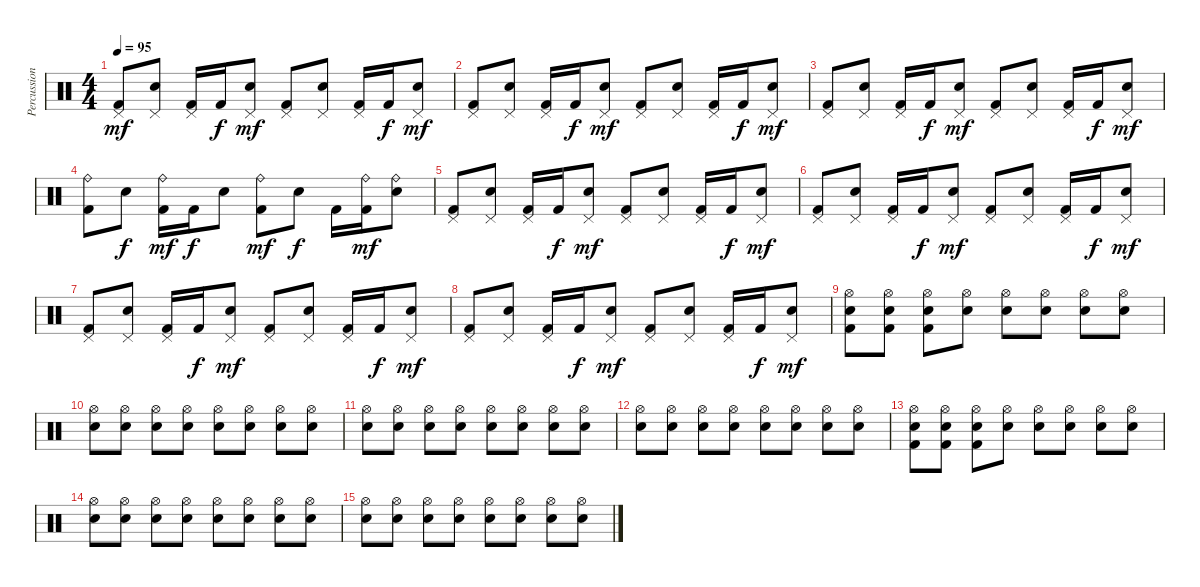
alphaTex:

\track ("Percussion" "Percussion") {instrument percussion}
\staff {score}
\articulation defaults
\ts (4 4)
\tempo 95
\clef neutral
\ks c
("Pedal Hi-Hat (hit)" "Kick (hit) 2").8{dy mf} ("Pedal Hi-Hat (hit)" "Electric Snare (hit)").8 ("Pedal Hi-Hat (hit)" "Kick (hit) 2").16 "Kick (hit) 2".16{dy f} ("Pedal Hi-Hat (hit)" "Electric Snare (hit)").8{dy mf} ("Pedal Hi-Hat (hit)" "Kick (hit) 2").8 ("Pedal Hi-Hat (hit)" "Electric Snare (hit)").8 ("Pedal Hi-Hat (hit)" "Kick (hit) 2").16 "Kick (hit) 2".16{dy f} ("Pedal Hi-Hat (hit)" "Electric Snare (hit)").8{dy mf} |
("Pedal Hi-Hat (hit)" "Kick (hit) 2").8 ("Pedal Hi-Hat (hit)" "Electric Snare (hit)").8 ("Pedal Hi-Hat (hit)" "Kick (hit) 2").16 "Kick (hit) 2".16{dy f} ("Pedal Hi-Hat (hit)" "Electric Snare (hit)").8{dy mf} ("Pedal Hi-Hat (hit)" "Kick (hit) 2").8 ("Pedal Hi-Hat (hit)" "Electric Snare (hit)").8 ("Pedal Hi-Hat (hit)" "Kick (hit) 2").16 "Kick (hit) 2".16{dy f} ("Pedal Hi-Hat (hit)" "Electric Snare (hit)").8{dy mf} |
("Pedal Hi-Hat (hit)" "Kick (hit) 2").8 ("Pedal Hi-Hat (hit)" "Electric Snare (hit)").8 ("Pedal Hi-Hat (hit)" "Kick (hit) 2").16 "Kick (hit) 2".16{dy f} ("Pedal Hi-Hat (hit)" "Electric Snare (hit)").8{dy mf} ("Pedal Hi-Hat (hit)" "Kick (hit) 2").8 ("Pedal Hi-Hat (hit)" "Electric Snare (hit)").8 ("Pedal Hi-Hat (hit)" "Kick (hit) 2").16 "Kick (hit) 2".16{dy f} ("Pedal Hi-Hat (hit)" "Electric Snare (hit)").8{dy mf} |
("Ride (bell)" "Kick (hit) 2").8 "Electric Snare (hit)".8{dy f} ("Ride (bell)" "Kick (hit) 2").16{dy mf} "Kick (hit) 2".16{dy f} "Electric Snare (hit)".8 ("Ride (bell)" "Kick (hit) 2").8{dy mf} "Electric Snare (hit)".8{dy f} "Kick (hit) 2".16 ("Ride (bell)" "Kick (hit) 2").16{dy mf} ("Ride (bell)" "Electric Snare (hit)").8 |
("Pedal Hi-Hat (hit)" "Kick (hit) 2").8 ("Pedal Hi-Hat (hit)" "Electric Snare (hit)").8 ("Pedal Hi-Hat (hit)" "Kick (hit) 2").16 "Kick (hit) 2".16{dy f} ("Pedal Hi-Hat (hit)" "Electric Snare (hit)").8{dy mf} ("Pedal Hi-Hat (hit)" "Kick (hit) 2").8 ("Pedal Hi-Hat (hit)" "Electric Snare (hit)").8 ("Pedal Hi-Hat (hit)" "Kick (hit) 2").16 "Kick (hit) 2".16{dy f} ("Pedal Hi-Hat (hit)" "Electric Snare (hit)").8{dy mf} |
("Pedal Hi-Hat (hit)" "Kick (hit) 2").8 ("Pedal Hi-Hat (hit)" "Electric Snare (hit)").8 ("Pedal Hi-Hat (hit)" "Kick (hit) 2").16 "Kick (hit) 2".16{dy f} ("Pedal Hi-Hat (hit)" "Electric Snare (hit)").8{dy mf} ("Pedal Hi-Hat (hit)" "Kick (hit) 2").8 ("Pedal Hi-Hat (hit)" "Electric Snare (hit)").8 ("Pedal Hi-Hat (hit)" "Kick (hit) 2").16 "Kick (hit) 2".16{dy f} ("Pedal Hi-Hat (hit)" "Electric Snare (hit)").8{dy mf} |
("Pedal Hi-Hat (hit)" "Kick (hit) 2").8 ("Pedal Hi-Hat (hit)" "Electric Snare (hit)").8 ("Pedal Hi-Hat (hit)" "Kick (hit) 2").16 "Kick (hit) 2".16{dy f} ("Pedal Hi-Hat (hit)" "Electric Snare (hit)").8{dy mf} ("Pedal Hi-Hat (hit)" "Kick (hit) 2").8 ("Pedal Hi-Hat (hit)" "Electric Snare (hit)").8 ("Pedal Hi-Hat (hit)" "Kick (hit) 2").16 "Kick (hit) 2".16{dy f} ("Pedal Hi-Hat (hit)" "Electric Snare (hit)").8{dy mf} |
("Pedal Hi-Hat (hit)" "Kick (hit) 2").8 ("Pedal Hi-Hat (hit)" "Electric Snare (hit)").8 ("Pedal Hi-Hat (hit)" "Kick (hit) 2").16 "Kick (hit) 2".16{dy f} ("Pedal Hi-Hat (hit)" "Electric Snare (hit)").8{dy mf} ("Pedal Hi-Hat (hit)" "Kick (hit) 2").8 ("Pedal Hi-Hat (hit)" "Electric Snare (hit)").8 ("Pedal Hi-Hat (hit)" "Kick (hit) 2").16 "Kick (hit) 2".16{dy f} ("Pedal Hi-Hat (hit)" "Electric Snare (hit)").8{dy mf} |
("Hi-Hat (open)" "Electric Snare (hit)" "Kick (hit) 2").8 ("Hi-Hat (open)" "Electric Snare (hit)" "Kick (hit) 2").8 ("Hi-Hat (open)" "Electric Snare (hit)" "Kick (hit) 2").8 ("Hi-Hat (open)" "Electric Snare (hit)").8 ("Hi-Hat (open)" "Electric Snare (hit)").8 ("Hi-Hat (open)" "Electric Snare (hit)").8 ("Hi-Hat (open)" "Electric Snare (hit)").8 ("Hi-Hat (open)" "Electric Snare (hit)").8 |
("Hi-Hat (open)" "Electric Snare (hit)").8 ("Hi-Hat (open)" "Electric Snare (hit)").8 ("Hi-Hat (open)" "Electric Snare (hit)").8 ("Hi-Hat (open)" "Electric Snare (hit)").8 ("Hi-Hat (open)" "Electric Snare (hit)").8 ("Hi-Hat (open)" "Electric Snare (hit)").8 ("Hi-Hat (open)" "Electric Snare (hit)").8 ("Hi-Hat (open)" "Electric Snare (hit)").8 |
("Hi-Hat (open)" "Electric Snare (hit)").8 ("Hi-Hat (open)" "Electric Snare (hit)").8 ("Hi-Hat (open)" "Electric Snare (hit)").8 ("Hi-Hat (open)" "Electric Snare (hit)").8 ("Hi-Hat (open)" "Electric Snare (hit)").8 ("Hi-Hat (open)" "Electric Snare (hit)").8 ("Hi-Hat (open)" "Electric Snare (hit)").8 ("Hi-Hat (open)" "Electric Snare (hit)").8 |
("Hi-Hat (open)" "Electric Snare (hit)").8 ("Hi-Hat (open)" "Electric Snare (hit)").8 ("Hi-Hat (open)" "Electric Snare (hit)").8 ("Hi-Hat (open)" "Electric Snare (hit)").8 ("Hi-Hat (open)" "Electric Snare (hit)").8 ("Hi-Hat (open)" "Electric Snare (hit)").8 ("Hi-Hat (open)" "Electric Snare (hit)").8 ("Hi-Hat (open)" "Electric Snare (hit)").8 |
("Hi-Hat (open)" "Electric Snare (hit)" "Kick (hit) 2").8 ("Hi-Hat (open)" "Electric Snare (hit)" "Kick (hit) 2").8 ("Hi-Hat (open)" "Electric Snare (hit)" "Kick (hit) 2").8 ("Hi-Hat (open)" "Electric Snare (hit)").8 ("Hi-Hat (open)" "Electric Snare (hit)").8 ("Hi-Hat (open)" "Electric Snare (hit)").8 ("Hi-Hat (open)" "Electric Snare (hit)").8 ("Hi-Hat (open)" "Electric Snare (hit)").8 |
("Hi-Hat (open)" "Electric Snare (hit)").8 ("Hi-Hat (open)" "Electric Snare (hit)").8 ("Hi-Hat (open)" "Electric Snare (hit)").8 ("Hi-Hat (open)" "Electric Snare (hit)").8 ("Hi-Hat (open)" "Electric Snare (hit)").8 ("Hi-Hat (open)" "Electric Snare (hit)").8 ("Hi-Hat (open)" "Electric Snare (hit)").8 ("Hi-Hat (open)" "Electric Snare (hit)").8 |
("Hi-Hat (open)" "Electric Snare (hit)").8 ("Hi-Hat (open)" "Electric Snare (hit)").8 ("Hi-Hat (open)" "Electric Snare (hit)").8 ("Hi-Hat (open)" "Electric Snare (hit)").8 ("Hi-Hat (open)" "Electric Snare (hit)").8 ("Hi-Hat (open)" "Electric Snare (hit)").8 ("Hi-Hat (open)" "Electric Snare (hit)").8 ("Hi-Hat (open)" "Electric Snare (hit)").8
